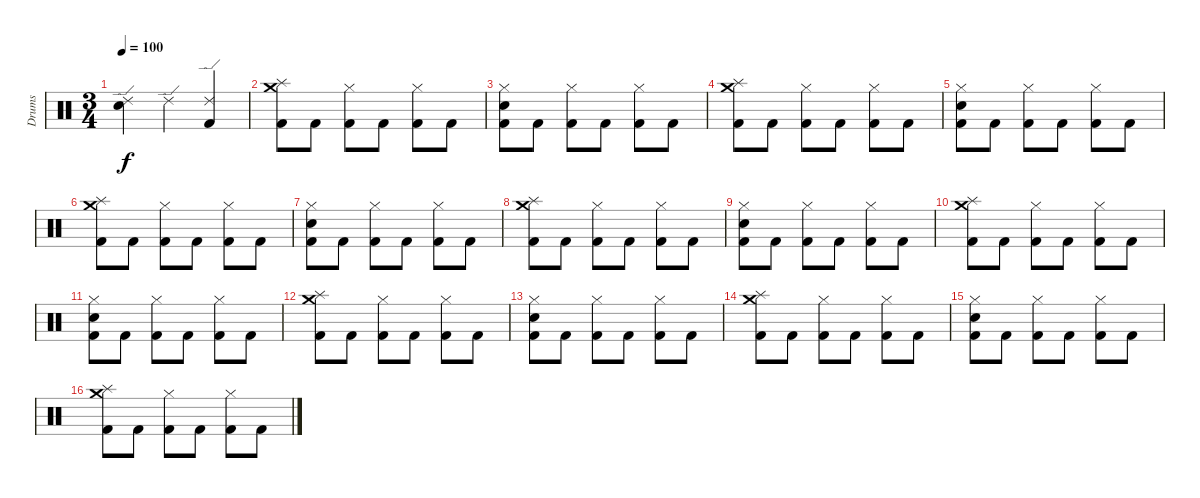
\track ("Drums" "Drums") {instrument percussion}
\staff {score}
\articulation defaults
\ts (3 4)
\tempo 100
\clef neutral
\ks c
("Ride (edge) 2" "Electric Snare (hit)").4{dy f} "Ride (edge) 2".4 ("Ride (edge) 2" "Kick (hit) 2").4 |
("Crash medium (hit)" "Splash (hit)" "Kick (hit) 2").8 "Kick (hit) 2".8 ("Hi-Hat (closed)" "Kick (hit) 2").8 "Kick (hit) 2".8 ("Hi-Hat (closed)" "Kick (hit) 2").8 "Kick (hit) 2".8 |
("Hi-Hat (closed)" "Electric Snare (hit)" "Kick (hit) 2").8 "Kick (hit) 2".8 ("Hi-Hat (closed)" "Kick (hit) 2").8 "Kick (hit) 2".8 ("Hi-Hat (closed)" "Kick (hit) 2").8 "Kick (hit) 2".8 |
("Crash medium (hit)" "Splash (hit)" "Kick (hit) 2").8 "Kick (hit) 2".8 ("Hi-Hat (closed)" "Kick (hit) 2").8 "Kick (hit) 2".8 ("Hi-Hat (closed)" "Kick (hit) 2").8 "Kick (hit) 2".8 |
("Hi-Hat (closed)" "Electric Snare (hit)" "Kick (hit) 2").8 "Kick (hit) 2".8 ("Hi-Hat (closed)" "Kick (hit) 2").8 "Kick (hit) 2".8 ("Hi-Hat (closed)" "Kick (hit) 2").8 "Kick (hit) 2".8 |
("Crash medium (hit)" "Splash (hit)" "Kick (hit) 2").8 "Kick (hit) 2".8 ("Hi-Hat (closed)" "Kick (hit) 2").8 "Kick (hit) 2".8 ("Hi-Hat (closed)" "Kick (hit) 2").8 "Kick (hit) 2".8 |
("Hi-Hat (closed)" "Electric Snare (hit)" "Kick (hit) 2").8 "Kick (hit) 2".8 ("Hi-Hat (closed)" "Kick (hit) 2").8 "Kick (hit) 2".8 ("Hi-Hat (closed)" "Kick (hit) 2").8 "Kick (hit) 2".8 |
("Crash medium (hit)" "Splash (hit)" "Kick (hit) 2").8 "Kick (hit) 2".8 ("Hi-Hat (closed)" "Kick (hit) 2").8 "Kick (hit) 2".8 ("Hi-Hat (closed)" "Kick (hit) 2").8 "Kick (hit) 2".8 |
("Hi-Hat (closed)" "Electric Snare (hit)" "Kick (hit) 2").8 "Kick (hit) 2".8 ("Hi-Hat (closed)" "Kick (hit) 2").8 "Kick (hit) 2".8 ("Hi-Hat (closed)" "Kick (hit) 2").8 "Kick (hit) 2".8 |
("Crash medium (hit)" "Splash (hit)" "Kick (hit) 2").8 "Kick (hit) 2".8 ("Hi-Hat (closed)" "Kick (hit) 2").8 "Kick (hit) 2".8 ("Hi-Hat (closed)" "Kick (hit) 2").8 "Kick (hit) 2".8 |
("Hi-Hat (closed)" "Electric Snare (hit)" "Kick (hit) 2").8 "Kick (hit) 2".8 ("Hi-Hat (closed)" "Kick (hit) 2").8 "Kick (hit) 2".8 ("Hi-Hat (closed)" "Kick (hit) 2").8 "Kick (hit) 2".8 |
("Crash medium (hit)" "Splash (hit)" "Kick (hit) 2").8 "Kick (hit) 2".8 ("Hi-Hat (closed)" "Kick (hit) 2").8 "Kick (hit) 2".8 ("Hi-Hat (closed)" "Kick (hit) 2").8 "Kick (hit) 2".8 |
("Hi-Hat (closed)" "Electric Snare (hit)" "Kick (hit) 2").8 "Kick (hit) 2".8 ("Hi-Hat (closed)" "Kick (hit) 2").8 "Kick (hit) 2".8 ("Hi-Hat (closed)" "Kick (hit) 2").8 "Kick (hit) 2".8 |
("Crash medium (hit)" "Splash (hit)" "Kick (hit) 2").8 "Kick (hit) 2".8 ("Hi-Hat (closed)" "Kick (hit) 2").8 "Kick (hit) 2".8 ("Hi-Hat (closed)" "Kick (hit) 2").8 "Kick (hit) 2".8 |
("Hi-Hat (closed)" "Electric Snare (hit)" "Kick (hit) 2").8 "Kick (hit) 2".8 ("Hi-Hat (closed)" "Kick (hit) 2").8 "Kick (hit) 2".8 ("Hi-Hat (closed)" "Kick (hit) 2").8 "Kick (hit) 2".8 |
("Crash medium (hit)" "Splash (hit)" "Kick (hit) 2").8 "Kick (hit) 2".8 ("Hi-Hat (closed)" "Kick (hit) 2").8 "Kick (hit) 2".8 ("Hi-Hat (closed)" "Kick (hit) 2").8 "Kick (hit) 2".8
